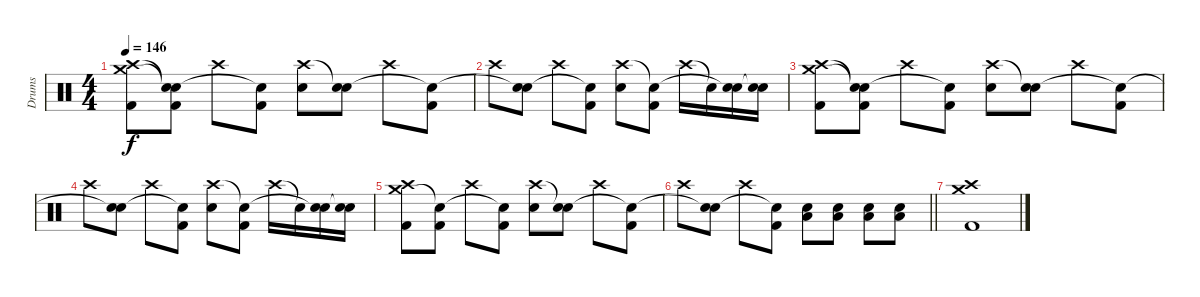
\track ("Drums" "Drums") {instrument percussion}
\staff {score}
\articulation defaults
\ts (4 4)
\tempo 146
\clef neutral
\ks c
("Kick (hit) 2" "Crash medium (hit)" "Crash high (hit)").8{dy f} ("Kick (hit) 2" "Snare (hit)"{t} "Snare (hit)"{t}).8 "Crash high (hit)".8 ("Kick (hit) 2" "Snare (hit)"{t}).8 ("Electric Snare (hit)" "Crash high (hit)").8 ("Electric Snare (hit)" "Snare (hit)"{t}).8 "Crash high (hit)".8 ("Kick (hit) 2" "Snare (hit)"{t}).8 |
"Crash high (hit)".8 ("Electric Snare (hit)" "Snare (hit)"{t}).8 "Crash high (hit)".8 ("Kick (hit) 2" "Snare (hit)"{t}).8 ("Electric Snare (hit)" "Crash high (hit)").8 ("Kick (hit) 2" "Snare (hit)"{t}).8 "Crash high (hit)".16 "Snare (hit)"{t}.16 ("Electric Snare (hit)" "Snare (hit)"{t}).16 ("Electric Snare (hit)" "Snare (hit)"{t}).16 |
("Kick (hit) 2" "Crash medium (hit)" "Crash high (hit)").8 ("Kick (hit) 2" "Snare (hit)"{t} "Snare (hit)"{t}).8 "Crash high (hit)".8 ("Kick (hit) 2" "Snare (hit)"{t}).8 ("Electric Snare (hit)" "Crash high (hit)").8 ("Electric Snare (hit)" "Snare (hit)"{t}).8 "Crash high (hit)".8 ("Kick (hit) 2" "Snare (hit)"{t}).8 |
"Crash high (hit)".8 ("Electric Snare (hit)" "Snare (hit)"{t}).8 "Crash high (hit)".8 ("Kick (hit) 2" "Snare (hit)"{t}).8 ("Electric Snare (hit)" "Crash high (hit)").8 ("Kick (hit) 2" "Snare (hit)"{t}).8 "Crash high (hit)".16 "Snare (hit)"{t}.16 ("Electric Snare (hit)" "Snare (hit)"{t}).16 ("Electric Snare (hit)" "Snare (hit)"{t}).16 |
("Kick (hit) 2" "Crash medium (hit)" "Crash high (hit)").8 ("Kick (hit) 2" "Snare (hit)"{t}).8 "Crash high (hit)".8 ("Kick (hit) 2" "Snare (hit)"{t}).8 ("Electric Snare (hit)" "Crash high (hit)").8 ("Electric Snare (hit)" "Snare (hit)"{t}).8 "Crash high (hit)".8 ("Kick (hit) 2" "Snare (hit)"{t}).8 |
\barLineRight lightlight "Crash high (hit)".8
("Electric Snare (hit)" "Snare (hit)"{t}).8 "Crash high (hit)".8 ("Kick (hit) 2" "Snare (hit)"{t}).8 ("Electric Snare (hit)" "Low Floor Tom (hit)").8 ("Electric Snare (hit)" "Low Floor Tom (hit)").8 ("Electric Snare (hit)" "Low Floor Tom (hit)").8 ("Electric Snare (hit)" "Low Floor Tom (hit)").8 |
("Kick (hit) 2" "Crash medium (hit)" "Crash high (hit)").1
